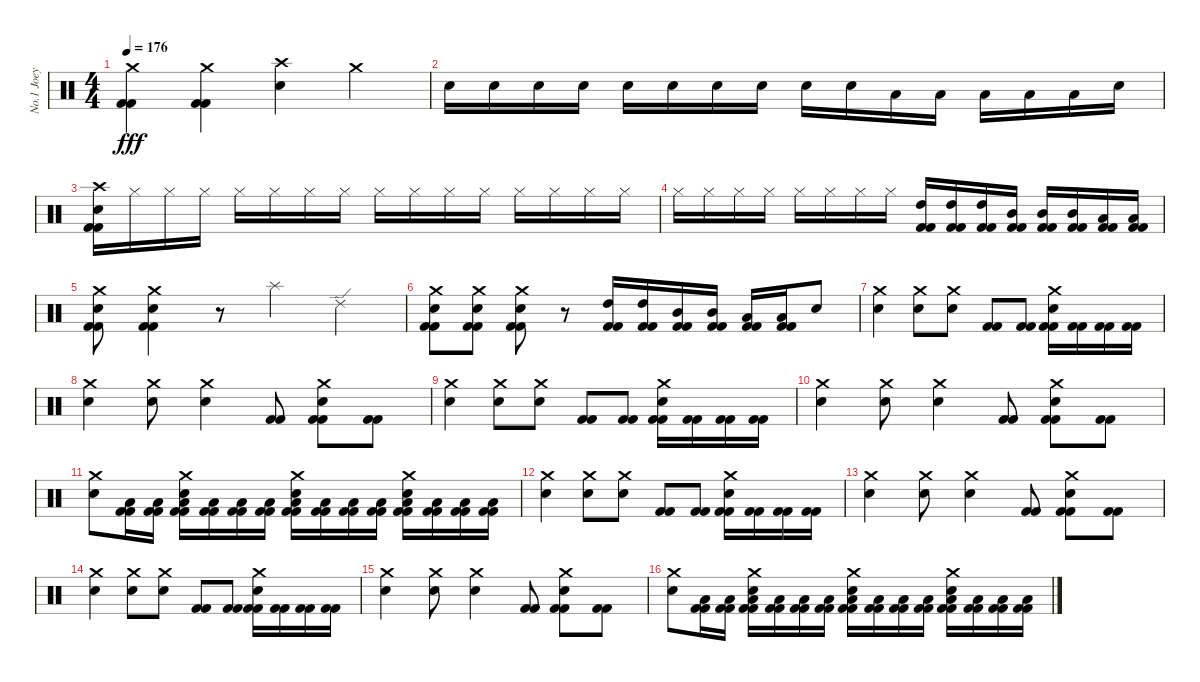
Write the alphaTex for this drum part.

\track ("No.1 Joey" "No.1 Joey") {instrument percussion}
\staff {score}
\articulation defaults
\ts (4 4)
\tempo 176
\clef neutral
\ks c
("Crash medium (hit)" "Kick (hit) 2" "Kick (hit) 2").4{dy fff} ("Crash medium (hit)" "Kick (hit) 2" "Kick (hit) 2").4 ("Electric Snare (hit)" "Crash high (hit)").4 "Crash medium (hit)".4 |
"Electric Snare (hit)".16 "Electric Snare (hit)".16 "Electric Snare (hit)".16 "Electric Snare (hit)".16 "Electric Snare (hit)".16 "Snare (hit) 2".16 "Snare (hit) 2".16 "Snare (hit) 2".16 "Snare (hit) 2".16 "Snare (hit) 2".16 "Low Floor Tom (hit)".16 "Low Floor Tom (hit)".16 "Low Floor Tom (hit)".16 "Low Floor Tom (hit)".16 "Low Floor Tom (hit)".16 "Electric Snare (hit)".16 |
("Electric Snare (hit)" "Crash high (hit)" "Kick (hit) 2" "Kick (hit) 2").16 "Hi-Hat (closed)".16 "Hi-Hat (closed)".16 "Hi-Hat (closed)".16 "Hi-Hat (closed)".16 "Hi-Hat (closed)".16 "Hi-Hat (closed)".16 "Hi-Hat (closed)".16 "Hi-Hat (closed)".16 "Hi-Hat (closed)".16 "Hi-Hat (closed)".16 "Hi-Hat (closed)".16 "Hi-Hat (closed)".16 "Hi-Hat (closed)".16 "Hi-Hat (closed)".16 "Hi-Hat (closed)".16 |
"Hi-Hat (closed)".16 "Hi-Hat (closed)".16 "Hi-Hat (closed)".16 "Hi-Hat (closed)".16 "Hi-Hat (closed)".16 "Hi-Hat (closed)".16 "Hi-Hat (closed)".16 "Hi-Hat (closed)".16 ("High Tom (hit)" "Kick (hit) 2" "Kick (hit) 2").16 ("High Tom (hit)" "Kick (hit) 2" "Kick (hit) 2").16 ("High Tom (hit)" "Kick (hit) 2" "Kick (hit) 2").16 ("Mid Tom (hit)" "Kick (hit) 2" "Kick (hit) 2").16 ("Mid Tom (hit)" "Kick (hit) 2" "Kick (hit) 2").16 ("Mid Tom (hit)" "Kick (hit) 2" "Kick (hit) 2").16 ("Low Tom (hit)" "Kick (hit) 2" "Kick (hit) 2").16 ("Low Tom (hit)" "Kick (hit) 2" "Kick (hit) 2").16 |
("Electric Snare (hit)" "Crash medium (hit)" "Kick (hit) 2" "Kick (hit) 2").8 ("Electric Snare (hit)" "Crash medium (hit)" "Kick (hit) 2" "Kick (hit) 2").4 r.8 "Splash (hit)".4 "Ride (edge) 2".4 |
("Electric Snare (hit)" "Crash medium (hit)" "Kick (hit) 2" "Kick (hit) 2").8 ("Electric Snare (hit)" "Crash medium (hit)" "Kick (hit) 2" "Kick (hit) 2").8 ("Electric Snare (hit)" "Crash medium (hit)" "Kick (hit) 2" "Kick (hit) 2").8 r.8 ("High Tom (hit)" "Kick (hit) 2" "Kick (hit) 2").16 ("High Tom (hit)" "Kick (hit) 2" "Kick (hit) 2").16 ("Mid Tom (hit)" "Kick (hit) 2" "Kick (hit) 2").16 ("Mid Tom (hit)" "Kick (hit) 2" "Kick (hit) 2").16 ("Low Tom (hit)" "Kick (hit) 2" "Kick (hit) 2").16 ("Low Tom (hit)" "Kick (hit) 2" "Kick (hit) 2").16 "Electric Snare (hit)".8 |
("Electric Snare (hit)" "Crash medium (hit)").4 ("Electric Snare (hit)" "Crash medium (hit)").8 ("Electric Snare (hit)" "Crash medium (hit)").8 ("Kick (hit) 2" "Kick (hit) 2").8 ("Kick (hit) 2" "Kick (hit) 2").8 ("Electric Snare (hit)" "Crash medium (hit)" "Kick (hit) 2" "Kick (hit) 2").16 ("Kick (hit) 2" "Kick (hit) 2").16 ("Kick (hit) 2" "Kick (hit) 2").16 ("Kick (hit) 2" "Kick (hit) 2").16 |
("Electric Snare (hit)" "Crash medium (hit)").4 ("Electric Snare (hit)" "Crash medium (hit)").8 ("Electric Snare (hit)" "Crash medium (hit)").4 ("Kick (hit) 2" "Kick (hit) 2").8 ("Electric Snare (hit)" "Crash medium (hit)" "Kick (hit) 2" "Kick (hit) 2").8 ("Kick (hit) 2" "Kick (hit) 2").8 |
("Electric Snare (hit)" "Crash medium (hit)").4 ("Electric Snare (hit)" "Crash medium (hit)").8 ("Electric Snare (hit)" "Crash medium (hit)").8 ("Kick (hit) 2" "Kick (hit) 2").8 ("Kick (hit) 2" "Kick (hit) 2").8 ("Electric Snare (hit)" "Crash medium (hit)" "Kick (hit) 2" "Kick (hit) 2").16 ("Kick (hit) 2" "Kick (hit) 2").16 ("Kick (hit) 2" "Kick (hit) 2").16 ("Kick (hit) 2" "Kick (hit) 2").16 |
("Electric Snare (hit)" "Crash medium (hit)").4 ("Electric Snare (hit)" "Crash medium (hit)").8 ("Electric Snare (hit)" "Crash medium (hit)").4 ("Kick (hit) 2" "Kick (hit) 2").8 ("Electric Snare (hit)" "Crash medium (hit)" "Kick (hit) 2" "Kick (hit) 2").8 ("Kick (hit) 2" "Kick (hit) 2").8 |
("Electric Snare (hit)" "Crash medium (hit)").8 ("Low Floor Tom (hit)" "Kick (hit) 2" "Kick (hit) 2").16 ("Low Floor Tom (hit)" "Kick (hit) 2" "Kick (hit) 2").16 ("Electric Snare (hit)" "Crash medium (hit)" "Low Floor Tom (hit)" "Kick (hit) 2" "Kick (hit) 2").16 ("Low Floor Tom (hit)" "Kick (hit) 2" "Kick (hit) 2").16 ("Low Floor Tom (hit)" "Kick (hit) 2" "Kick (hit) 2").16 ("Low Floor Tom (hit)" "Kick (hit) 2" "Kick (hit) 2").16 ("Electric Snare (hit)" "Crash medium (hit)" "Low Floor Tom (hit)" "Kick (hit) 2" "Kick (hit) 2").16 ("Low Floor Tom (hit)" "Kick (hit) 2" "Kick (hit) 2").16 ("Low Floor Tom (hit)" "Kick (hit) 2" "Kick (hit) 2").16 ("Low Floor Tom (hit)" "Kick (hit) 2" "Kick (hit) 2").16 ("Electric Snare (hit)" "Crash medium (hit)" "Low Floor Tom (hit)" "Kick (hit) 2" "Kick (hit) 2").16 ("Low Floor Tom (hit)" "Kick (hit) 2" "Kick (hit) 2").16 ("Low Floor Tom (hit)" "Kick (hit) 2" "Kick (hit) 2").16 ("Low Floor Tom (hit)" "Kick (hit) 2" "Kick (hit) 2").16 |
("Electric Snare (hit)" "Crash medium (hit)").4 ("Electric Snare (hit)" "Crash medium (hit)").8 ("Electric Snare (hit)" "Crash medium (hit)").8 ("Kick (hit) 2" "Kick (hit) 2").8 ("Kick (hit) 2" "Kick (hit) 2").8 ("Electric Snare (hit)" "Crash medium (hit)" "Kick (hit) 2" "Kick (hit) 2").16 ("Kick (hit) 2" "Kick (hit) 2").16 ("Kick (hit) 2" "Kick (hit) 2").16 ("Kick (hit) 2" "Kick (hit) 2").16 |
("Electric Snare (hit)" "Crash medium (hit)").4 ("Electric Snare (hit)" "Crash medium (hit)").8 ("Electric Snare (hit)" "Crash medium (hit)").4 ("Kick (hit) 2" "Kick (hit) 2").8 ("Electric Snare (hit)" "Crash medium (hit)" "Kick (hit) 2" "Kick (hit) 2").8 ("Kick (hit) 2" "Kick (hit) 2").8 |
("Electric Snare (hit)" "Crash medium (hit)").4 ("Electric Snare (hit)" "Crash medium (hit)").8 ("Electric Snare (hit)" "Crash medium (hit)").8 ("Kick (hit) 2" "Kick (hit) 2").8 ("Kick (hit) 2" "Kick (hit) 2").8 ("Electric Snare (hit)" "Crash medium (hit)" "Kick (hit) 2" "Kick (hit) 2").16 ("Kick (hit) 2" "Kick (hit) 2").16 ("Kick (hit) 2" "Kick (hit) 2").16 ("Kick (hit) 2" "Kick (hit) 2").16 |
("Electric Snare (hit)" "Crash medium (hit)").4 ("Electric Snare (hit)" "Crash medium (hit)").8 ("Electric Snare (hit)" "Crash medium (hit)").4 ("Kick (hit) 2" "Kick (hit) 2").8 ("Electric Snare (hit)" "Crash medium (hit)" "Kick (hit) 2" "Kick (hit) 2").8 ("Kick (hit) 2" "Kick (hit) 2").8 |
("Electric Snare (hit)" "Crash medium (hit)").8 ("Low Floor Tom (hit)" "Kick (hit) 2" "Kick (hit) 2").16 ("Low Floor Tom (hit)" "Kick (hit) 2" "Kick (hit) 2").16 ("Electric Snare (hit)" "Crash medium (hit)" "Low Floor Tom (hit)" "Kick (hit) 2" "Kick (hit) 2").16 ("Low Floor Tom (hit)" "Kick (hit) 2" "Kick (hit) 2").16 ("Low Floor Tom (hit)" "Kick (hit) 2" "Kick (hit) 2").16 ("Low Floor Tom (hit)" "Kick (hit) 2" "Kick (hit) 2").16 ("Electric Snare (hit)" "Crash medium (hit)" "Low Floor Tom (hit)" "Kick (hit) 2" "Kick (hit) 2").16 ("Low Floor Tom (hit)" "Kick (hit) 2" "Kick (hit) 2").16 ("Low Floor Tom (hit)" "Kick (hit) 2" "Kick (hit) 2").16 ("Low Floor Tom (hit)" "Kick (hit) 2" "Kick (hit) 2").16 ("Electric Snare (hit)" "Crash medium (hit)" "Low Floor Tom (hit)" "Kick (hit) 2" "Kick (hit) 2").16 ("Low Floor Tom (hit)" "Kick (hit) 2" "Kick (hit) 2").16 ("Low Floor Tom (hit)" "Kick (hit) 2" "Kick (hit) 2").16 ("Low Floor Tom (hit)" "Kick (hit) 2" "Kick (hit) 2").16
